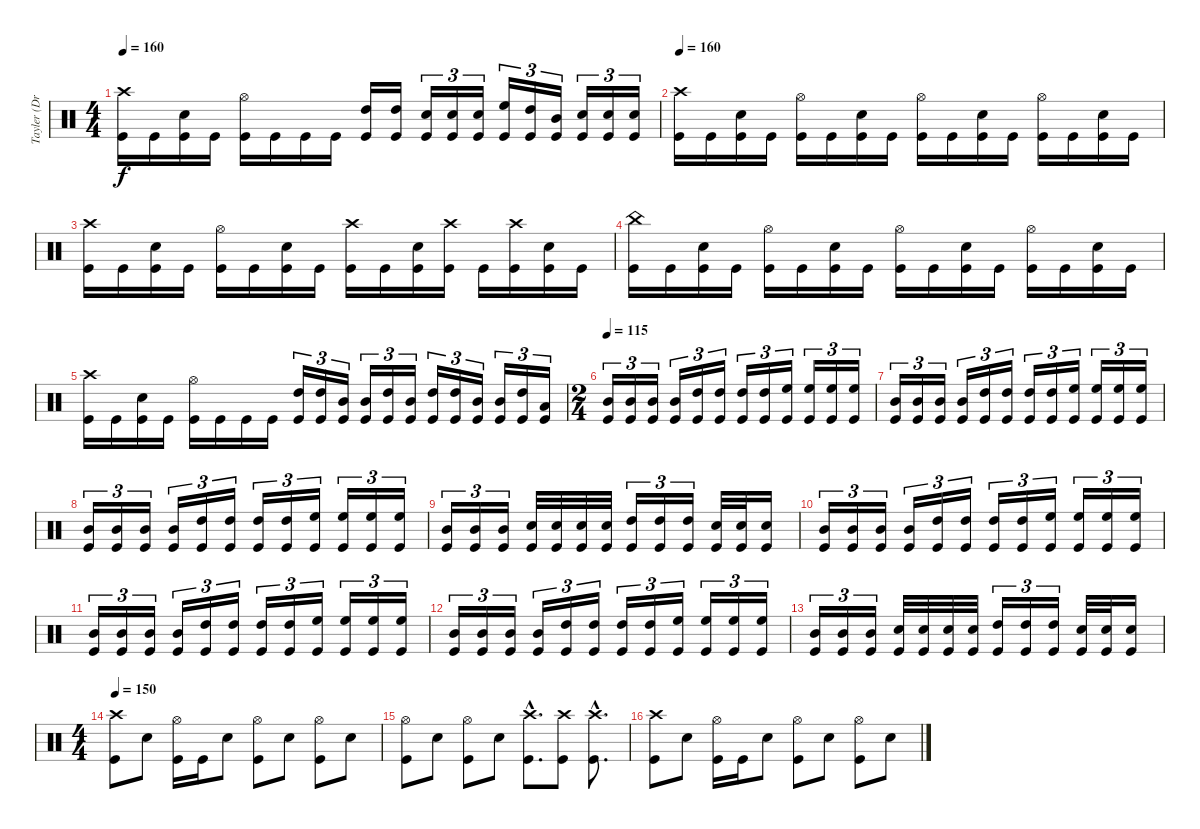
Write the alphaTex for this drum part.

\track ("Tayler (Drums)" "Tayler (Dr") {instrument percussion}
\staff {score}
\articulation defaults
\ts (4 4)
\tempo 160
\clef neutral
\ks c
("Crash high (hit)" "Kick (hit)").16{dy f} "Kick (hit)".16 ("Electric Snare (hit)" "Kick (hit)").16 "Kick (hit)".16 ("Hi-Hat (open)" "Kick (hit)").16 "Kick (hit)".16 "Kick (hit)".16 "Kick (hit)".16 ("High Tom (hit)" "Kick (hit)").16 ("High Tom (hit)" "Kick (hit)").16 ("Electric Snare (hit)" "Kick (hit)").16{tu (3 2)} ("Electric Snare (hit)" "Kick (hit)").16{tu (3 2)} ("Electric Snare (hit)" "Kick (hit)").16{tu (3 2)} ("High Floor Tom (hit)" "Kick (hit)").16{tu (3 2)} ("High Tom (hit)" "Kick (hit)").16{tu (3 2)} ("Mid Tom (hit)" "Kick (hit)").16{tu (3 2)} ("Electric Snare (hit)" "Kick (hit)").16{tu (3 2)} ("Electric Snare (hit)" "Kick (hit)").16{tu (3 2)} ("Electric Snare (hit)" "Kick (hit)").16{tu (3 2)} |
\tempo 160
("Crash high (hit)" "Kick (hit)").16 "Kick (hit)".16 ("Electric Snare (hit)" "Kick (hit)").16 "Kick (hit)".16 ("Hi-Hat (open)" "Kick (hit)").16 "Kick (hit)".16 ("Electric Snare (hit)" "Kick (hit)").16 "Kick (hit)".16 ("Hi-Hat (open)" "Kick (hit)").16 "Kick (hit)".16 ("Electric Snare (hit)" "Kick (hit)").16 "Kick (hit)".16 ("Hi-Hat (open)" "Kick (hit)").16 "Kick (hit)".16 ("Electric Snare (hit)" "Kick (hit)").16 "Kick (hit)".16 |
("Crash high (hit)" "Kick (hit)").16 "Kick (hit)".16 ("Electric Snare (hit)" "Kick (hit)").16 "Kick (hit)".16 ("Hi-Hat (open)" "Kick (hit)").16 "Kick (hit)".16 ("Electric Snare (hit)" "Kick (hit)").16 "Kick (hit)".16 ("Crash high (hit)" "Kick (hit)").16 "Kick (hit)".16 ("Electric Snare (hit)" "Kick (hit)").16 ("Crash high (hit)" "Kick (hit)").16 "Kick (hit)".16 ("Crash high (hit)" "Kick (hit)").16 ("Electric Snare (hit)" "Kick (hit)").16 "Kick (hit)".16 |
("China (hit)" "Kick (hit)").16 "Kick (hit)".16 ("Electric Snare (hit)" "Kick (hit)").16 "Kick (hit)".16 ("Hi-Hat (open)" "Kick (hit)").16 "Kick (hit)".16 ("Electric Snare (hit)" "Kick (hit)").16 "Kick (hit)".16 ("Hi-Hat (open)" "Kick (hit)").16 "Kick (hit)".16 ("Electric Snare (hit)" "Kick (hit)").16 "Kick (hit)".16 ("Hi-Hat (open)" "Kick (hit)").16 "Kick (hit)".16 ("Electric Snare (hit)" "Kick (hit)").16 "Kick (hit)".16 |
("Crash high (hit)" "Kick (hit)").16 "Kick (hit)".16 ("Electric Snare (hit)" "Kick (hit)").16 "Kick (hit)".16 ("Hi-Hat (open)" "Kick (hit)").16 "Kick (hit)".16 "Kick (hit)".16 "Kick (hit)".16 ("High Tom (hit)" "Kick (hit)").16{tu (3 2)} ("High Tom (hit)" "Kick (hit)").16{tu (3 2)} ("Mid Tom (hit)" "Kick (hit)").16{tu (3 2)} ("Mid Tom (hit)" "Kick (hit)").16{tu (3 2)} ("High Tom (hit)" "Kick (hit)").16{tu (3 2)} ("Mid Tom (hit)" "Kick (hit)").16{tu (3 2)} ("High Tom (hit)" "Kick (hit)").16{tu (3 2)} ("High Tom (hit)" "Kick (hit)").16{tu (3 2)} ("Mid Tom (hit)" "Kick (hit)").16{tu (3 2)} ("Mid Tom (hit)" "Kick (hit)").16{tu (3 2)} ("High Tom (hit)" "Kick (hit)").16{tu (3 2)} ("Low Tom (hit)" "Kick (hit)").16{tu (3 2)} |
\ts (2 4)
\tempo 115
("Mid Tom (hit)" "Kick (hit)").16{tu (3 2)} ("Mid Tom (hit)" "Kick (hit)").16{tu (3 2)} ("Mid Tom (hit)" "Kick (hit)").16{tu (3 2)} ("Mid Tom (hit)" "Kick (hit)").16{tu (3 2)} ("High Tom (hit)" "Kick (hit)").16{tu (3 2)} ("High Tom (hit)" "Kick (hit)").16{tu (3 2)} ("High Tom (hit)" "Kick (hit)").16{tu (3 2)} ("High Tom (hit)" "Kick (hit)").16{tu (3 2)} ("High Floor Tom (hit)" "Kick (hit)").16{tu (3 2)} ("High Floor Tom (hit)" "Kick (hit)").16{tu (3 2)} ("High Floor Tom (hit)" "Kick (hit)").16{tu (3 2)} ("High Floor Tom (hit)" "Kick (hit)").16{tu (3 2)} |
("Mid Tom (hit)" "Kick (hit)").16{tu (3 2)} ("Mid Tom (hit)" "Kick (hit)").16{tu (3 2)} ("Mid Tom (hit)" "Kick (hit)").16{tu (3 2)} ("Mid Tom (hit)" "Kick (hit)").16{tu (3 2)} ("High Tom (hit)" "Kick (hit)").16{tu (3 2)} ("High Tom (hit)" "Kick (hit)").16{tu (3 2)} ("High Tom (hit)" "Kick (hit)").16{tu (3 2)} ("High Tom (hit)" "Kick (hit)").16{tu (3 2)} ("High Floor Tom (hit)" "Kick (hit)").16{tu (3 2)} ("High Floor Tom (hit)" "Kick (hit)").16{tu (3 2)} ("High Floor Tom (hit)" "Kick (hit)").16{tu (3 2)} ("High Floor Tom (hit)" "Kick (hit)").16{tu (3 2)} |
("Mid Tom (hit)" "Kick (hit)").16{tu (3 2)} ("Mid Tom (hit)" "Kick (hit)").16{tu (3 2)} ("Mid Tom (hit)" "Kick (hit)").16{tu (3 2)} ("Mid Tom (hit)" "Kick (hit)").16{tu (3 2)} ("High Tom (hit)" "Kick (hit)").16{tu (3 2)} ("High Tom (hit)" "Kick (hit)").16{tu (3 2)} ("High Tom (hit)" "Kick (hit)").16{tu (3 2)} ("High Tom (hit)" "Kick (hit)").16{tu (3 2)} ("High Floor Tom (hit)" "Kick (hit)").16{tu (3 2)} ("High Floor Tom (hit)" "Kick (hit)").16{tu (3 2)} ("High Floor Tom (hit)" "Kick (hit)").16{tu (3 2)} ("High Floor Tom (hit)" "Kick (hit)").16{tu (3 2)} |
("Mid Tom (hit)" "Kick (hit)").16{tu (3 2)} ("Mid Tom (hit)" "Kick (hit)").16{tu (3 2)} ("Mid Tom (hit)" "Kick (hit)").16{tu (3 2)} ("Electric Snare (hit)" "Kick (hit)").32 ("Electric Snare (hit)" "Kick (hit)").32 ("Electric Snare (hit)" "Kick (hit)").32 ("Electric Snare (hit)" "Kick (hit)").32 ("High Tom (hit)" "Kick (hit)").16{tu (3 2)} ("High Tom (hit)" "Kick (hit)").16{tu (3 2)} ("High Tom (hit)" "Kick (hit)").16{tu (3 2)} ("Electric Snare (hit)" "Kick (hit)").32 ("Electric Snare (hit)" "Kick (hit)").32 ("Electric Snare (hit)" "Kick (hit)").16 |
("Mid Tom (hit)" "Kick (hit)").16{tu (3 2)} ("Mid Tom (hit)" "Kick (hit)").16{tu (3 2)} ("Mid Tom (hit)" "Kick (hit)").16{tu (3 2)} ("Mid Tom (hit)" "Kick (hit)").16{tu (3 2)} ("High Tom (hit)" "Kick (hit)").16{tu (3 2)} ("High Tom (hit)" "Kick (hit)").16{tu (3 2)} ("High Tom (hit)" "Kick (hit)").16{tu (3 2)} ("High Tom (hit)" "Kick (hit)").16{tu (3 2)} ("High Floor Tom (hit)" "Kick (hit)").16{tu (3 2)} ("High Floor Tom (hit)" "Kick (hit)").16{tu (3 2)} ("High Floor Tom (hit)" "Kick (hit)").16{tu (3 2)} ("High Floor Tom (hit)" "Kick (hit)").16{tu (3 2)} |
("Mid Tom (hit)" "Kick (hit)").16{tu (3 2)} ("Mid Tom (hit)" "Kick (hit)").16{tu (3 2)} ("Mid Tom (hit)" "Kick (hit)").16{tu (3 2)} ("Mid Tom (hit)" "Kick (hit)").16{tu (3 2)} ("High Tom (hit)" "Kick (hit)").16{tu (3 2)} ("High Tom (hit)" "Kick (hit)").16{tu (3 2)} ("High Tom (hit)" "Kick (hit)").16{tu (3 2)} ("High Tom (hit)" "Kick (hit)").16{tu (3 2)} ("High Floor Tom (hit)" "Kick (hit)").16{tu (3 2)} ("High Floor Tom (hit)" "Kick (hit)").16{tu (3 2)} ("High Floor Tom (hit)" "Kick (hit)").16{tu (3 2)} ("High Floor Tom (hit)" "Kick (hit)").16{tu (3 2)} |
("Mid Tom (hit)" "Kick (hit)").16{tu (3 2)} ("Mid Tom (hit)" "Kick (hit)").16{tu (3 2)} ("Mid Tom (hit)" "Kick (hit)").16{tu (3 2)} ("Mid Tom (hit)" "Kick (hit)").16{tu (3 2)} ("High Tom (hit)" "Kick (hit)").16{tu (3 2)} ("High Tom (hit)" "Kick (hit)").16{tu (3 2)} ("High Tom (hit)" "Kick (hit)").16{tu (3 2)} ("High Tom (hit)" "Kick (hit)").16{tu (3 2)} ("High Floor Tom (hit)" "Kick (hit)").16{tu (3 2)} ("High Floor Tom (hit)" "Kick (hit)").16{tu (3 2)} ("High Floor Tom (hit)" "Kick (hit)").16{tu (3 2)} ("High Floor Tom (hit)" "Kick (hit)").16{tu (3 2)} |
("Mid Tom (hit)" "Kick (hit)").16{tu (3 2)} ("Mid Tom (hit)" "Kick (hit)").16{tu (3 2)} ("Mid Tom (hit)" "Kick (hit)").16{tu (3 2)} ("Electric Snare (hit)" "Kick (hit)").32 ("Electric Snare (hit)" "Kick (hit)").32 ("Electric Snare (hit)" "Kick (hit)").32 ("Electric Snare (hit)" "Kick (hit)").32 ("High Tom (hit)" "Kick (hit)").16{tu (3 2)} ("High Tom (hit)" "Kick (hit)").16{tu (3 2)} ("High Tom (hit)" "Kick (hit)").16{tu (3 2)} ("Electric Snare (hit)" "Kick (hit)").32 ("Electric Snare (hit)" "Kick (hit)").32 ("Electric Snare (hit)" "Kick (hit)").16 |
\ts (4 4)
\tempo 150
("Crash high (hit)" "Kick (hit)").8 "Electric Snare (hit)".8 ("Hi-Hat (open)" "Kick (hit)").16 "Kick (hit)".16 "Electric Snare (hit)".8 ("Hi-Hat (open)" "Kick (hit)").8 "Electric Snare (hit)".8 ("Hi-Hat (open)" "Kick (hit)").8 "Electric Snare (hit)".8 |
("Hi-Hat (open)" "Kick (hit)").8 "Electric Snare (hit)".8 ("Hi-Hat (open)" "Kick (hit)").8 "Electric Snare (hit)".8 ("Crash high (hit)"{hac} "Kick (hit)"{hac}).8{d} ("Crash high (hit)" "Kick (hit)").8 ("Crash high (hit)"{hac} "Kick (hit)"{hac}).8{d} |
("Crash high (hit)" "Kick (hit)").8 "Electric Snare (hit)".8 ("Hi-Hat (open)" "Kick (hit)").16 "Kick (hit)".16 "Electric Snare (hit)".8 ("Hi-Hat (open)" "Kick (hit)").8 "Electric Snare (hit)".8 ("Hi-Hat (open)" "Kick (hit)").8 "Electric Snare (hit)".8
